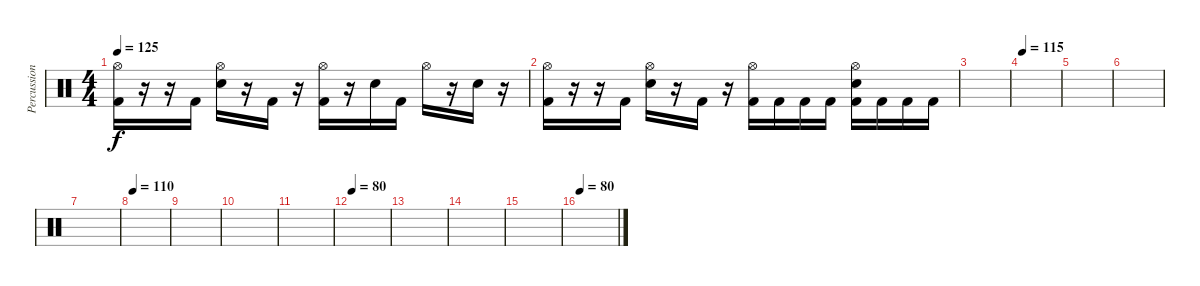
\track ("Percussion" "Percussion") {instrument percussion}
\staff {score}
\articulation defaults
\ts (4 4)
\tempo 125
\clef neutral
\ks c
("Hi-Hat (open)" "Kick (hit) 2").16{dy f} r.16 r.16 "Kick (hit) 2".16 ("Hi-Hat (open)" "Electric Snare (hit)").16 r.16 "Kick (hit) 2".16 r.16 ("Hi-Hat (open)" "Kick (hit) 2").16 r.16 "Electric Snare (hit)".16 "Kick (hit) 2".16 "Hi-Hat (open)".16 r.16 "Electric Snare (hit)".16 r.16 |
("Hi-Hat (open)" "Kick (hit) 2").16 r.16 r.16 "Kick (hit) 2".16 ("Hi-Hat (open)" "Electric Snare (hit)").16 r.16 "Kick (hit) 2".16 r.16 ("Hi-Hat (open)" "Kick (hit) 2").16 "Kick (hit) 2".16 "Kick (hit) 2".16 "Kick (hit) 2".16 ("Hi-Hat (open)" "Electric Snare (hit)" "Kick (hit) 2").16 "Kick (hit) 2".16 "Kick (hit) 2".16 "Kick (hit) 2".16 |
|
\tempo 115
|
|
|
|
\tempo 110
|
|
|
|
\tempo 80
|
|
|
|
\tempo 80
